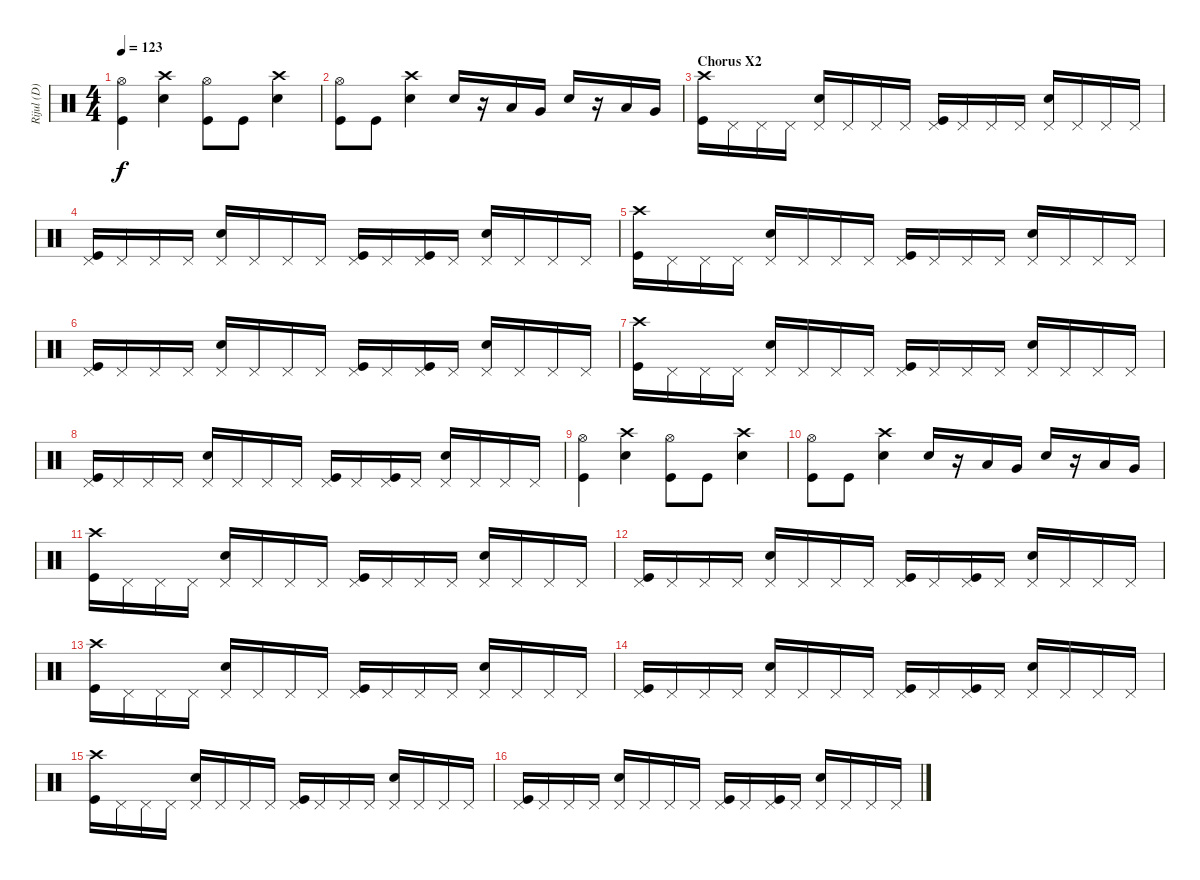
\track ("Rijul (D)" "Rijul (D)") {instrument percussion}
\staff {score}
\articulation defaults
\ts (4 4)
\tempo 123
\clef neutral
\ks c
("Hi-Hat (open)" "Kick (hit)").4{dy f} ("Crash high (hit)" "Snare (hit) 2").4 ("Hi-Hat (open)" "Kick (hit)").8 "Kick (hit)".8 ("Crash high (hit)" "Snare (hit) 2").4 |
("Hi-Hat (open)" "Kick (hit)").8 "Kick (hit)".8 ("Crash high (hit)" "Snare (hit) 2").4 "Snare (hit) 2".16 r.16 "Low Tom (hit)".16 "Very Low Tom (hit)".16 "Snare (hit) 2".16 r.16 "Low Tom (hit)".16 "Very Low Tom (hit)".16 |
\section ("" "Chorus X2")
("Crash high (hit)" "Kick (hit)").16 "Pedal Hi-Hat (hit)".16 "Pedal Hi-Hat (hit)".16 "Pedal Hi-Hat (hit)".16 ("Pedal Hi-Hat (hit)" "Snare (hit) 2").16 "Pedal Hi-Hat (hit)".16 "Pedal Hi-Hat (hit)".16 "Pedal Hi-Hat (hit)".16 ("Pedal Hi-Hat (hit)" "Kick (hit)").16 "Pedal Hi-Hat (hit)".16 "Pedal Hi-Hat (hit)".16 "Pedal Hi-Hat (hit)".16 ("Pedal Hi-Hat (hit)" "Snare (hit) 2").16 "Pedal Hi-Hat (hit)".16 "Pedal Hi-Hat (hit)".16 "Pedal Hi-Hat (hit)".16 |
("Pedal Hi-Hat (hit)" "Kick (hit)").16 "Pedal Hi-Hat (hit)".16 "Pedal Hi-Hat (hit)".16 "Pedal Hi-Hat (hit)".16 ("Pedal Hi-Hat (hit)" "Snare (hit) 2").16 "Pedal Hi-Hat (hit)".16 "Pedal Hi-Hat (hit)".16 "Pedal Hi-Hat (hit)".16 ("Pedal Hi-Hat (hit)" "Kick (hit)").16 "Pedal Hi-Hat (hit)".16 ("Pedal Hi-Hat (hit)" "Kick (hit)").16 "Pedal Hi-Hat (hit)".16 ("Pedal Hi-Hat (hit)" "Snare (hit) 2").16 "Pedal Hi-Hat (hit)".16 "Pedal Hi-Hat (hit)".16 "Pedal Hi-Hat (hit)".16 |
("Crash high (hit)" "Kick (hit)").16 "Pedal Hi-Hat (hit)".16 "Pedal Hi-Hat (hit)".16 "Pedal Hi-Hat (hit)".16 ("Pedal Hi-Hat (hit)" "Snare (hit) 2").16 "Pedal Hi-Hat (hit)".16 "Pedal Hi-Hat (hit)".16 "Pedal Hi-Hat (hit)".16 ("Pedal Hi-Hat (hit)" "Kick (hit)").16 "Pedal Hi-Hat (hit)".16 "Pedal Hi-Hat (hit)".16 "Pedal Hi-Hat (hit)".16 ("Pedal Hi-Hat (hit)" "Snare (hit) 2").16 "Pedal Hi-Hat (hit)".16 "Pedal Hi-Hat (hit)".16 "Pedal Hi-Hat (hit)".16 |
("Pedal Hi-Hat (hit)" "Kick (hit)").16 "Pedal Hi-Hat (hit)".16 "Pedal Hi-Hat (hit)".16 "Pedal Hi-Hat (hit)".16 ("Pedal Hi-Hat (hit)" "Snare (hit) 2").16 "Pedal Hi-Hat (hit)".16 "Pedal Hi-Hat (hit)".16 "Pedal Hi-Hat (hit)".16 ("Pedal Hi-Hat (hit)" "Kick (hit)").16 "Pedal Hi-Hat (hit)".16 ("Pedal Hi-Hat (hit)" "Kick (hit)").16 "Pedal Hi-Hat (hit)".16 ("Pedal Hi-Hat (hit)" "Snare (hit) 2").16 "Pedal Hi-Hat (hit)".16 "Pedal Hi-Hat (hit)".16 "Pedal Hi-Hat (hit)".16 |
("Crash high (hit)" "Kick (hit)").16 "Pedal Hi-Hat (hit)".16 "Pedal Hi-Hat (hit)".16 "Pedal Hi-Hat (hit)".16 ("Pedal Hi-Hat (hit)" "Snare (hit) 2").16 "Pedal Hi-Hat (hit)".16 "Pedal Hi-Hat (hit)".16 "Pedal Hi-Hat (hit)".16 ("Pedal Hi-Hat (hit)" "Kick (hit)").16 "Pedal Hi-Hat (hit)".16 "Pedal Hi-Hat (hit)".16 "Pedal Hi-Hat (hit)".16 ("Pedal Hi-Hat (hit)" "Snare (hit) 2").16 "Pedal Hi-Hat (hit)".16 "Pedal Hi-Hat (hit)".16 "Pedal Hi-Hat (hit)".16 |
("Pedal Hi-Hat (hit)" "Kick (hit)").16 "Pedal Hi-Hat (hit)".16 "Pedal Hi-Hat (hit)".16 "Pedal Hi-Hat (hit)".16 ("Pedal Hi-Hat (hit)" "Snare (hit) 2").16 "Pedal Hi-Hat (hit)".16 "Pedal Hi-Hat (hit)".16 "Pedal Hi-Hat (hit)".16 ("Pedal Hi-Hat (hit)" "Kick (hit)").16 "Pedal Hi-Hat (hit)".16 ("Pedal Hi-Hat (hit)" "Kick (hit)").16 "Pedal Hi-Hat (hit)".16 ("Pedal Hi-Hat (hit)" "Snare (hit) 2").16 "Pedal Hi-Hat (hit)".16 "Pedal Hi-Hat (hit)".16 "Pedal Hi-Hat (hit)".16 |
("Hi-Hat (open)" "Kick (hit)").4 ("Crash high (hit)" "Snare (hit) 2").4 ("Hi-Hat (open)" "Kick (hit)").8 "Kick (hit)".8 ("Crash high (hit)" "Snare (hit) 2").4 |
("Hi-Hat (open)" "Kick (hit)").8 "Kick (hit)".8 ("Crash high (hit)" "Snare (hit) 2").4 "Snare (hit) 2".16 r.16 "Low Tom (hit)".16 "Very Low Tom (hit)".16 "Snare (hit) 2".16 r.16 "Low Tom (hit)".16 "Very Low Tom (hit)".16 |
("Crash high (hit)" "Kick (hit)").16 "Pedal Hi-Hat (hit)".16 "Pedal Hi-Hat (hit)".16 "Pedal Hi-Hat (hit)".16 ("Pedal Hi-Hat (hit)" "Snare (hit) 2").16 "Pedal Hi-Hat (hit)".16 "Pedal Hi-Hat (hit)".16 "Pedal Hi-Hat (hit)".16 ("Pedal Hi-Hat (hit)" "Kick (hit)").16 "Pedal Hi-Hat (hit)".16 "Pedal Hi-Hat (hit)".16 "Pedal Hi-Hat (hit)".16 ("Pedal Hi-Hat (hit)" "Snare (hit) 2").16 "Pedal Hi-Hat (hit)".16 "Pedal Hi-Hat (hit)".16 "Pedal Hi-Hat (hit)".16 |
("Pedal Hi-Hat (hit)" "Kick (hit)").16 "Pedal Hi-Hat (hit)".16 "Pedal Hi-Hat (hit)".16 "Pedal Hi-Hat (hit)".16 ("Pedal Hi-Hat (hit)" "Snare (hit) 2").16 "Pedal Hi-Hat (hit)".16 "Pedal Hi-Hat (hit)".16 "Pedal Hi-Hat (hit)".16 ("Pedal Hi-Hat (hit)" "Kick (hit)").16 "Pedal Hi-Hat (hit)".16 ("Pedal Hi-Hat (hit)" "Kick (hit)").16 "Pedal Hi-Hat (hit)".16 ("Pedal Hi-Hat (hit)" "Snare (hit) 2").16 "Pedal Hi-Hat (hit)".16 "Pedal Hi-Hat (hit)".16 "Pedal Hi-Hat (hit)".16 |
("Crash high (hit)" "Kick (hit)").16 "Pedal Hi-Hat (hit)".16 "Pedal Hi-Hat (hit)".16 "Pedal Hi-Hat (hit)".16 ("Pedal Hi-Hat (hit)" "Snare (hit) 2").16 "Pedal Hi-Hat (hit)".16 "Pedal Hi-Hat (hit)".16 "Pedal Hi-Hat (hit)".16 ("Pedal Hi-Hat (hit)" "Kick (hit)").16 "Pedal Hi-Hat (hit)".16 "Pedal Hi-Hat (hit)".16 "Pedal Hi-Hat (hit)".16 ("Pedal Hi-Hat (hit)" "Snare (hit) 2").16 "Pedal Hi-Hat (hit)".16 "Pedal Hi-Hat (hit)".16 "Pedal Hi-Hat (hit)".16 |
("Pedal Hi-Hat (hit)" "Kick (hit)").16 "Pedal Hi-Hat (hit)".16 "Pedal Hi-Hat (hit)".16 "Pedal Hi-Hat (hit)".16 ("Pedal Hi-Hat (hit)" "Snare (hit) 2").16 "Pedal Hi-Hat (hit)".16 "Pedal Hi-Hat (hit)".16 "Pedal Hi-Hat (hit)".16 ("Pedal Hi-Hat (hit)" "Kick (hit)").16 "Pedal Hi-Hat (hit)".16 ("Pedal Hi-Hat (hit)" "Kick (hit)").16 "Pedal Hi-Hat (hit)".16 ("Pedal Hi-Hat (hit)" "Snare (hit) 2").16 "Pedal Hi-Hat (hit)".16 "Pedal Hi-Hat (hit)".16 "Pedal Hi-Hat (hit)".16 |
("Crash high (hit)" "Kick (hit)").16 "Pedal Hi-Hat (hit)".16 "Pedal Hi-Hat (hit)".16 "Pedal Hi-Hat (hit)".16 ("Pedal Hi-Hat (hit)" "Snare (hit) 2").16 "Pedal Hi-Hat (hit)".16 "Pedal Hi-Hat (hit)".16 "Pedal Hi-Hat (hit)".16 ("Pedal Hi-Hat (hit)" "Kick (hit)").16 "Pedal Hi-Hat (hit)".16 "Pedal Hi-Hat (hit)".16 "Pedal Hi-Hat (hit)".16 ("Pedal Hi-Hat (hit)" "Snare (hit) 2").16 "Pedal Hi-Hat (hit)".16 "Pedal Hi-Hat (hit)".16 "Pedal Hi-Hat (hit)".16 |
("Pedal Hi-Hat (hit)" "Kick (hit)").16 "Pedal Hi-Hat (hit)".16 "Pedal Hi-Hat (hit)".16 "Pedal Hi-Hat (hit)".16 ("Pedal Hi-Hat (hit)" "Snare (hit) 2").16 "Pedal Hi-Hat (hit)".16 "Pedal Hi-Hat (hit)".16 "Pedal Hi-Hat (hit)".16 ("Pedal Hi-Hat (hit)" "Kick (hit)").16 "Pedal Hi-Hat (hit)".16 ("Pedal Hi-Hat (hit)" "Kick (hit)").16 "Pedal Hi-Hat (hit)".16 ("Pedal Hi-Hat (hit)" "Snare (hit) 2").16 "Pedal Hi-Hat (hit)".16 "Pedal Hi-Hat (hit)".16 "Pedal Hi-Hat (hit)".16
